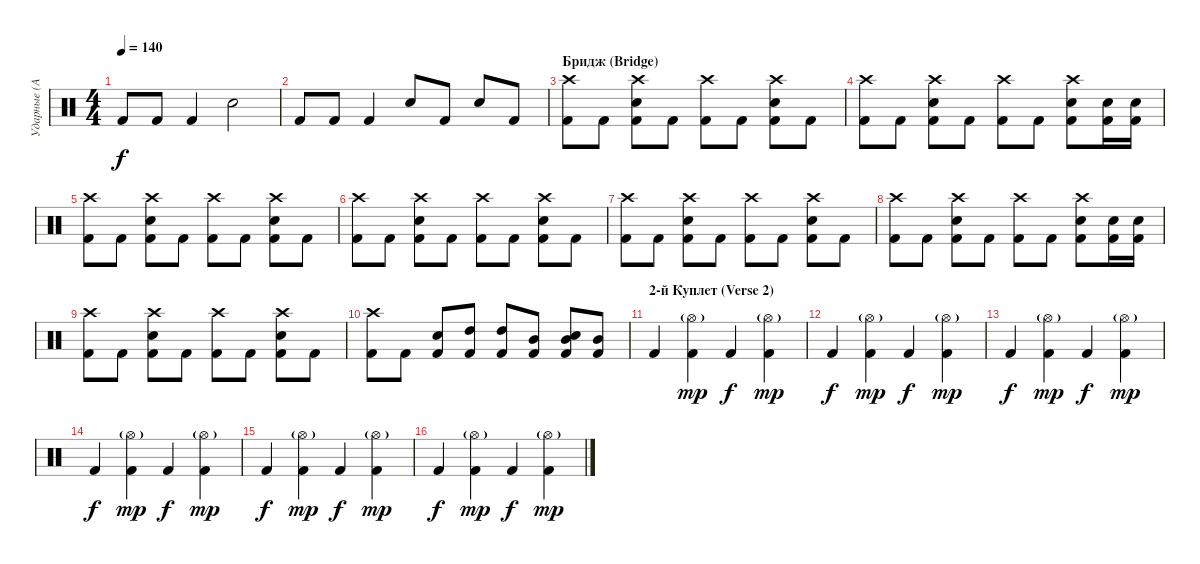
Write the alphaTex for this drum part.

\track ("Ударные (Алексей Барзилович)" "Ударные (А") {instrument percussion}
\staff {score}
\articulation defaults
\ts (4 4)
\tempo 140
\clef neutral
\ks c "Kick (hit) 2".8{dy f} "Kick (hit) 2".8 "Kick (hit) 2".4 "Electric Snare (hit)".2
|
"Kick (hit) 2".8 "Kick (hit) 2".8 "Kick (hit) 2".4 "Electric Snare (hit)".8 "Kick (hit) 2".8 "Electric Snare (hit)".8 "Kick (hit) 2".8 |
\section ("" "Бридж (Bridge)")
("Crash high (hit)" "Kick (hit) 2").8 "Kick (hit) 2".8 ("Crash high (hit)" "Electric Snare (hit)" "Kick (hit) 2").8 "Kick (hit) 2".8 ("Crash high (hit)" "Kick (hit) 2").8 "Kick (hit) 2".8 ("Crash high (hit)" "Electric Snare (hit)" "Kick (hit) 2").8 "Kick (hit) 2".8 |
("Crash high (hit)" "Kick (hit) 2").8 "Kick (hit) 2".8 ("Crash high (hit)" "Electric Snare (hit)" "Kick (hit) 2").8 "Kick (hit) 2".8 ("Crash high (hit)" "Kick (hit) 2").8 "Kick (hit) 2".8 ("Crash high (hit)" "Electric Snare (hit)" "Kick (hit) 2").8 ("Electric Snare (hit)" "Kick (hit) 2").16 ("Electric Snare (hit)" "Kick (hit) 2").16 |
("Crash high (hit)" "Kick (hit) 2").8 "Kick (hit) 2".8 ("Crash high (hit)" "Electric Snare (hit)" "Kick (hit) 2").8 "Kick (hit) 2".8 ("Crash high (hit)" "Kick (hit) 2").8 "Kick (hit) 2".8 ("Crash high (hit)" "Electric Snare (hit)" "Kick (hit) 2").8 "Kick (hit) 2".8 |
("Crash high (hit)" "Kick (hit) 2").8 "Kick (hit) 2".8 ("Crash high (hit)" "Electric Snare (hit)" "Kick (hit) 2").8 "Kick (hit) 2".8 ("Crash high (hit)" "Kick (hit) 2").8 "Kick (hit) 2".8 ("Crash high (hit)" "Electric Snare (hit)" "Kick (hit) 2").8 "Kick (hit) 2".8 |
("Crash high (hit)" "Kick (hit) 2").8 "Kick (hit) 2".8 ("Crash high (hit)" "Electric Snare (hit)" "Kick (hit) 2").8 "Kick (hit) 2".8 ("Crash high (hit)" "Kick (hit) 2").8 "Kick (hit) 2".8 ("Crash high (hit)" "Electric Snare (hit)" "Kick (hit) 2").8 "Kick (hit) 2".8 |
("Crash high (hit)" "Kick (hit) 2").8 "Kick (hit) 2".8 ("Crash high (hit)" "Electric Snare (hit)" "Kick (hit) 2").8 "Kick (hit) 2".8 ("Crash high (hit)" "Kick (hit) 2").8 "Kick (hit) 2".8 ("Crash high (hit)" "Electric Snare (hit)" "Kick (hit) 2").8 ("Electric Snare (hit)" "Kick (hit) 2").16 ("Electric Snare (hit)" "Kick (hit) 2").16 |
("Crash high (hit)" "Kick (hit) 2").8 "Kick (hit) 2".8 ("Crash high (hit)" "Electric Snare (hit)" "Kick (hit) 2").8 "Kick (hit) 2".8 ("Crash high (hit)" "Kick (hit) 2").8 "Kick (hit) 2".8 ("Crash high (hit)" "Electric Snare (hit)" "Kick (hit) 2").8 "Kick (hit) 2".8 |
("Crash high (hit)" "Kick (hit) 2").8 "Kick (hit) 2".8 ("Electric Snare (hit)" "Kick (hit) 2").8 ("High Tom (hit)" "Kick (hit) 2").8 ("High Tom (hit)" "Kick (hit) 2").8 ("Mid Tom (hit)" "Kick (hit) 2").8 ("Mid Tom (hit)" "Electric Snare (hit)" "Kick (hit) 2").8 ("Mid Tom (hit)" "Kick (hit) 2").8 |
\section ("" "2-й Куплет (Verse 2)")
"Kick (hit) 2".4 ("Hi-Hat (open)"{g} "Kick (hit) 2").4{dy mp} "Kick (hit) 2".4{dy f} ("Hi-Hat (open)"{g} "Kick (hit) 2").4{dy mp} |
"Kick (hit) 2".4{dy f} ("Hi-Hat (open)"{g} "Kick (hit) 2").4{dy mp} "Kick (hit) 2".4{dy f} ("Hi-Hat (open)"{g} "Kick (hit) 2").4{dy mp} |
"Kick (hit) 2".4{dy f} ("Hi-Hat (open)"{g} "Kick (hit) 2").4{dy mp} "Kick (hit) 2".4{dy f} ("Hi-Hat (open)"{g} "Kick (hit) 2").4{dy mp} |
"Kick (hit) 2".4{dy f} ("Hi-Hat (open)"{g} "Kick (hit) 2").4{dy mp} "Kick (hit) 2".4{dy f} ("Hi-Hat (open)"{g} "Kick (hit) 2").4{dy mp} |
"Kick (hit) 2".4{dy f} ("Hi-Hat (open)"{g} "Kick (hit) 2").4{dy mp} "Kick (hit) 2".4{dy f} ("Hi-Hat (open)"{g} "Kick (hit) 2").4{dy mp} |
"Kick (hit) 2".4{dy f} ("Hi-Hat (open)"{g} "Kick (hit) 2").4{dy mp} "Kick (hit) 2".4{dy f} ("Hi-Hat (open)"{g} "Kick (hit) 2").4{dy mp}
